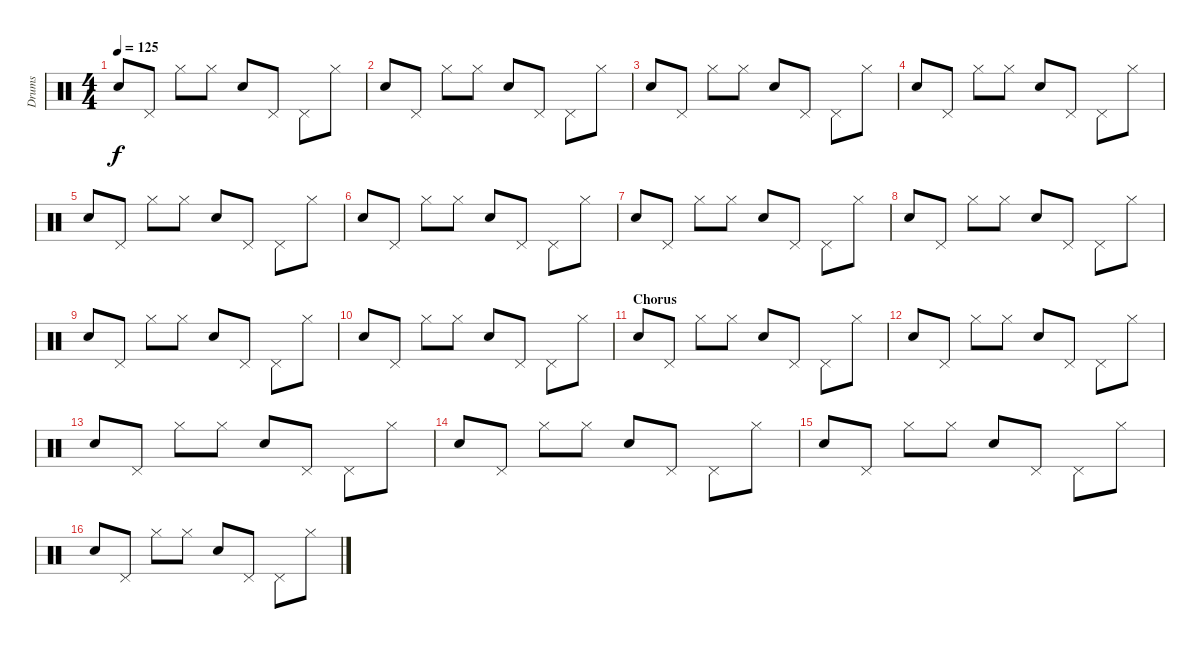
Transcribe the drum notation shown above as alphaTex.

\track ("Drums" "Drums") {instrument percussion}
\staff {score}
\articulation defaults
\ts (4 4)
\tempo 125
\clef neutral
\ks c "Electric Snare (hit)".8{dy f} "Pedal Hi-Hat (hit)".8 "Hi-Hat (closed)".8 "Hi-Hat (closed)".8 "Electric Snare (hit)".8 "Pedal Hi-Hat (hit)".8 "Pedal Hi-Hat (hit)".8 "Hi-Hat (closed)".8
|
"Electric Snare (hit)".8 "Pedal Hi-Hat (hit)".8 "Hi-Hat (closed)".8 "Hi-Hat (closed)".8 "Electric Snare (hit)".8 "Pedal Hi-Hat (hit)".8 "Pedal Hi-Hat (hit)".8 "Hi-Hat (closed)".8 |
"Electric Snare (hit)".8 "Pedal Hi-Hat (hit)".8 "Hi-Hat (closed)".8 "Hi-Hat (closed)".8 "Electric Snare (hit)".8 "Pedal Hi-Hat (hit)".8 "Pedal Hi-Hat (hit)".8 "Hi-Hat (closed)".8 |
"Electric Snare (hit)".8 "Pedal Hi-Hat (hit)".8 "Hi-Hat (closed)".8 "Hi-Hat (closed)".8 "Electric Snare (hit)".8 "Pedal Hi-Hat (hit)".8 "Pedal Hi-Hat (hit)".8 "Hi-Hat (closed)".8 |
"Electric Snare (hit)".8 "Pedal Hi-Hat (hit)".8 "Hi-Hat (closed)".8 "Hi-Hat (closed)".8 "Electric Snare (hit)".8 "Pedal Hi-Hat (hit)".8 "Pedal Hi-Hat (hit)".8 "Hi-Hat (closed)".8 |
"Electric Snare (hit)".8 "Pedal Hi-Hat (hit)".8 "Hi-Hat (closed)".8 "Hi-Hat (closed)".8 "Electric Snare (hit)".8 "Pedal Hi-Hat (hit)".8 "Pedal Hi-Hat (hit)".8 "Hi-Hat (closed)".8 |
"Electric Snare (hit)".8 "Pedal Hi-Hat (hit)".8 "Hi-Hat (closed)".8 "Hi-Hat (closed)".8 "Electric Snare (hit)".8 "Pedal Hi-Hat (hit)".8 "Pedal Hi-Hat (hit)".8 "Hi-Hat (closed)".8 |
"Electric Snare (hit)".8 "Pedal Hi-Hat (hit)".8 "Hi-Hat (closed)".8 "Hi-Hat (closed)".8 "Electric Snare (hit)".8 "Pedal Hi-Hat (hit)".8 "Pedal Hi-Hat (hit)".8 "Hi-Hat (closed)".8 |
"Electric Snare (hit)".8 "Pedal Hi-Hat (hit)".8 "Hi-Hat (closed)".8 "Hi-Hat (closed)".8 "Electric Snare (hit)".8 "Pedal Hi-Hat (hit)".8 "Pedal Hi-Hat (hit)".8 "Hi-Hat (closed)".8 |
"Electric Snare (hit)".8 "Pedal Hi-Hat (hit)".8 "Hi-Hat (closed)".8 "Hi-Hat (closed)".8 "Electric Snare (hit)".8 "Pedal Hi-Hat (hit)".8 "Pedal Hi-Hat (hit)".8 "Hi-Hat (closed)".8 |
\section ("" "Chorus")
"Electric Snare (hit)".8 "Pedal Hi-Hat (hit)".8 "Hi-Hat (closed)".8 "Hi-Hat (closed)".8 "Electric Snare (hit)".8 "Pedal Hi-Hat (hit)".8 "Pedal Hi-Hat (hit)".8 "Hi-Hat (closed)".8 |
"Electric Snare (hit)".8 "Pedal Hi-Hat (hit)".8 "Hi-Hat (closed)".8 "Hi-Hat (closed)".8 "Electric Snare (hit)".8 "Pedal Hi-Hat (hit)".8 "Pedal Hi-Hat (hit)".8 "Hi-Hat (closed)".8 |
"Electric Snare (hit)".8 "Pedal Hi-Hat (hit)".8 "Hi-Hat (closed)".8 "Hi-Hat (closed)".8 "Electric Snare (hit)".8 "Pedal Hi-Hat (hit)".8 "Pedal Hi-Hat (hit)".8 "Hi-Hat (closed)".8 |
"Electric Snare (hit)".8 "Pedal Hi-Hat (hit)".8 "Hi-Hat (closed)".8 "Hi-Hat (closed)".8 "Electric Snare (hit)".8 "Pedal Hi-Hat (hit)".8 "Pedal Hi-Hat (hit)".8 "Hi-Hat (closed)".8 |
"Electric Snare (hit)".8 "Pedal Hi-Hat (hit)".8 "Hi-Hat (closed)".8 "Hi-Hat (closed)".8 "Electric Snare (hit)".8 "Pedal Hi-Hat (hit)".8 "Pedal Hi-Hat (hit)".8 "Hi-Hat (closed)".8 |
"Electric Snare (hit)".8 "Pedal Hi-Hat (hit)".8 "Hi-Hat (closed)".8 "Hi-Hat (closed)".8 "Electric Snare (hit)".8 "Pedal Hi-Hat (hit)".8 "Pedal Hi-Hat (hit)".8 "Hi-Hat (closed)".8
